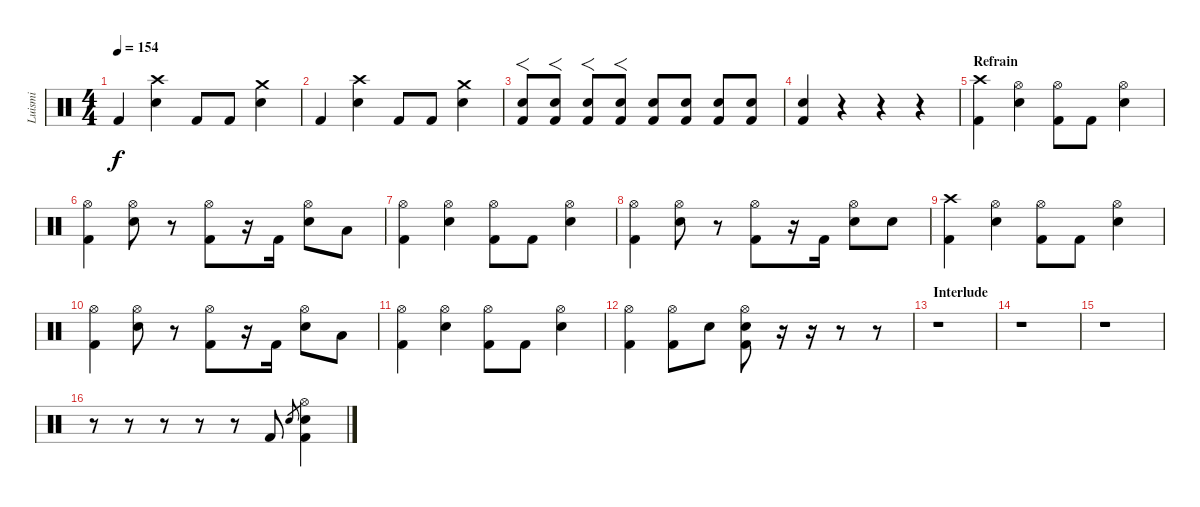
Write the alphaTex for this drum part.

\track ("Luismi" "Luismi") {instrument percussion}
\staff {score}
\articulation defaults
\ts (4 4)
\tempo 154
\clef neutral
\ks c "Kick (hit) 2".4{dy f}
("Crash high (hit)" "Electric Snare (hit)").4 "Kick (hit) 2".8 "Kick (hit) 2".8 ("Crash medium (hit)" "Electric Snare (hit)").4 |
"Kick (hit) 2".4 ("Crash high (hit)" "Electric Snare (hit)").4 "Kick (hit) 2".8 "Kick (hit) 2".8 ("Crash medium (hit)" "Electric Snare (hit)").4 |
("Electric Snare (hit)" "Kick (hit) 2").8{f} ("Electric Snare (hit)" "Kick (hit) 2").8{f} ("Electric Snare (hit)" "Kick (hit) 2").8{f} ("Electric Snare (hit)" "Kick (hit) 2").8{f} ("Electric Snare (hit)" "Kick (hit) 2").8 ("Electric Snare (hit)" "Kick (hit) 2").8 ("Electric Snare (hit)" "Kick (hit) 2").8 ("Electric Snare (hit)" "Kick (hit) 2").8 |
("Electric Snare (hit)" "Kick (hit) 2").4 r.4 r.4 r.4 |
\section ("" "Refrain")
("Crash high (hit)" "Kick (hit) 2").4 ("Hi-Hat (open)" "Electric Snare (hit)").4 ("Hi-Hat (open)" "Kick (hit) 2").8 "Kick (hit) 2".8 ("Hi-Hat (open)" "Electric Snare (hit)").4 |
("Hi-Hat (open)" "Kick (hit) 2").4 ("Hi-Hat (open)" "Electric Snare (hit)").8 r.8 ("Hi-Hat (open)" "Kick (hit) 2").8 r.16 "Kick (hit) 2".16 ("Hi-Hat (open)" "Electric Snare (hit)").8 "Low Floor Tom (hit)".8 |
("Hi-Hat (open)" "Kick (hit) 2").4 ("Hi-Hat (open)" "Electric Snare (hit)").4 ("Hi-Hat (open)" "Kick (hit) 2").8 "Kick (hit) 2".8 ("Hi-Hat (open)" "Electric Snare (hit)").4 |
("Hi-Hat (open)" "Kick (hit) 2").4 ("Hi-Hat (open)" "Electric Snare (hit)").8 r.8 ("Hi-Hat (open)" "Kick (hit) 2").8 r.16 "Kick (hit) 2".16 ("Hi-Hat (open)" "Electric Snare (hit)").8 "Electric Snare (hit)".8 |
("Crash high (hit)" "Kick (hit) 2").4 ("Hi-Hat (open)" "Electric Snare (hit)").4 ("Hi-Hat (open)" "Kick (hit) 2").8 "Kick (hit) 2".8 ("Hi-Hat (open)" "Electric Snare (hit)").4 |
("Hi-Hat (open)" "Kick (hit) 2").4 ("Hi-Hat (open)" "Electric Snare (hit)").8 r.8 ("Hi-Hat (open)" "Kick (hit) 2").8 r.16 "Kick (hit) 2".16 ("Hi-Hat (open)" "Electric Snare (hit)").8 "Low Floor Tom (hit)".8 |
("Hi-Hat (open)" "Kick (hit) 2").4 ("Hi-Hat (open)" "Electric Snare (hit)").4 ("Hi-Hat (open)" "Kick (hit) 2").8 "Kick (hit) 2".8 ("Hi-Hat (open)" "Electric Snare (hit)").4 |
("Hi-Hat (open)" "Kick (hit) 2").4 ("Hi-Hat (open)" "Kick (hit) 2").8 "Electric Snare (hit)".8 ("Hi-Hat (open)" "Electric Snare (hit)" "Kick (hit) 2").8 r.16 r.16 r.8 r.8 |
\section ("" "Interlude")
r.1 |
r.1 |
r.1 |
r.8 r.8 r.8 r.8 r.8 "Kick (hit) 2".8 "Electric Snare (hit)".8{gr} ("Hi-Hat (open)" "Electric Snare (hit)" "Kick (hit) 2").4
